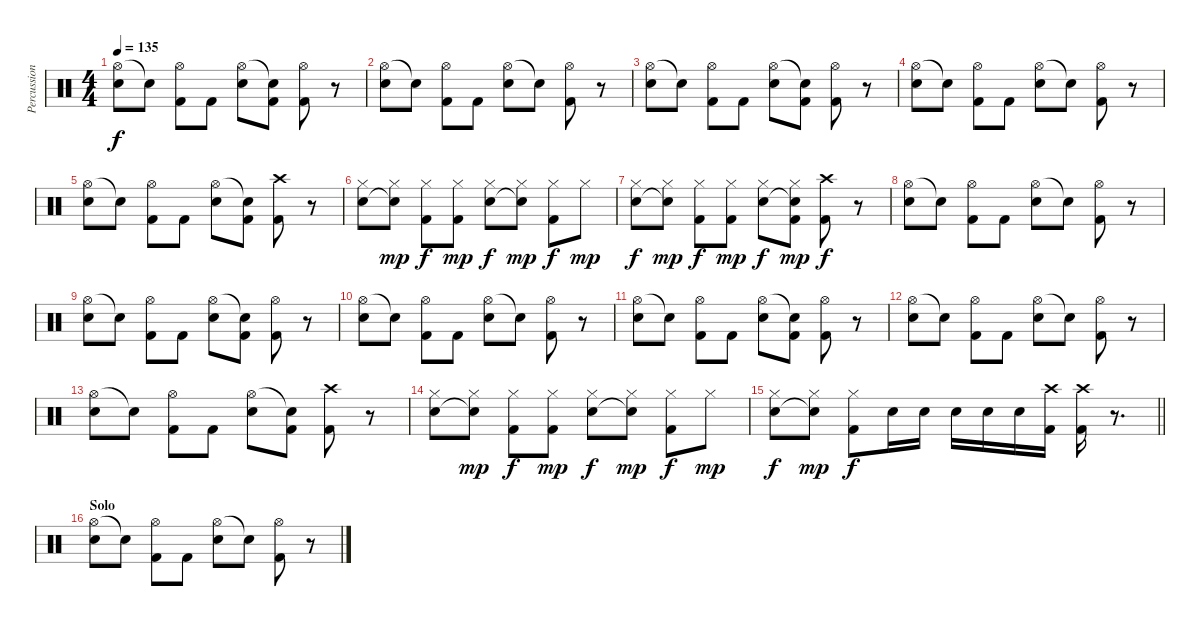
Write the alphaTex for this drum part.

\track ("Percussion" "Percussion") {instrument percussion}
\staff {score}
\articulation defaults
\ts (4 4)
\tempo 135
\clef neutral
\ks c
("Hi-Hat (open)" "Electric Snare (hit)").8{dy f} "Electric Snare (hit)"{t}.8 ("Hi-Hat (open)" "Kick (hit) 2").8 "Kick (hit) 2".8 ("Hi-Hat (open)" "Electric Snare (hit)").8 ("Electric Snare (hit)"{t} "Kick (hit) 2").8 ("Hi-Hat (open)" "Kick (hit) 2").8 r.8 |
("Hi-Hat (open)" "Electric Snare (hit)").8 "Electric Snare (hit)"{t}.8 ("Hi-Hat (open)" "Kick (hit) 2").8 "Kick (hit) 2".8 ("Hi-Hat (open)" "Electric Snare (hit)").8 "Electric Snare (hit)"{t}.8 ("Hi-Hat (open)" "Kick (hit) 2").8 r.8 |
("Hi-Hat (open)" "Electric Snare (hit)").8 "Electric Snare (hit)"{t}.8 ("Hi-Hat (open)" "Kick (hit) 2").8 "Kick (hit) 2".8 ("Hi-Hat (open)" "Electric Snare (hit)").8 ("Electric Snare (hit)"{t} "Kick (hit) 2").8 ("Hi-Hat (open)" "Kick (hit) 2").8 r.8 |
("Hi-Hat (open)" "Electric Snare (hit)").8 "Electric Snare (hit)"{t}.8 ("Hi-Hat (open)" "Kick (hit) 2").8 "Kick (hit) 2".8 ("Hi-Hat (open)" "Electric Snare (hit)").8 "Electric Snare (hit)"{t}.8 ("Hi-Hat (open)" "Kick (hit) 2").8 r.8 |
("Hi-Hat (open)" "Electric Snare (hit)").8 "Electric Snare (hit)"{t}.8 ("Hi-Hat (open)" "Kick (hit) 2").8 "Kick (hit) 2".8 ("Hi-Hat (open)" "Electric Snare (hit)").8 ("Electric Snare (hit)"{t} "Kick (hit) 2").8 ("Crash high (hit)" "Kick (hit) 2").8 r.8 |
("Hi-Hat (closed)" "Electric Snare (hit)").8 ("Hi-Hat (closed)" "Electric Snare (hit)"{t}).8{dy mp} ("Hi-Hat (closed)" "Kick (hit) 2").8{dy f} ("Hi-Hat (closed)" "Kick (hit) 2").8{dy mp} ("Hi-Hat (closed)" "Electric Snare (hit)").8{dy f} ("Hi-Hat (closed)" "Electric Snare (hit)"{t}).8{dy mp} ("Hi-Hat (closed)" "Kick (hit) 2").8{dy f} "Hi-Hat (closed)".8{dy mp} |
("Hi-Hat (closed)" "Electric Snare (hit)").8{dy f} ("Hi-Hat (closed)" "Electric Snare (hit)"{t}).8{dy mp} ("Hi-Hat (closed)" "Kick (hit) 2").8{dy f} ("Hi-Hat (closed)" "Kick (hit) 2").8{dy mp} ("Hi-Hat (closed)" "Electric Snare (hit)").8{dy f} ("Hi-Hat (closed)" "Electric Snare (hit)"{t} "Kick (hit) 2").8{dy mp} ("Crash high (hit)" "Kick (hit) 2").8{dy f} r.8 |
("Hi-Hat (open)" "Electric Snare (hit)").8 "Electric Snare (hit)"{t}.8 ("Hi-Hat (open)" "Kick (hit) 2").8 "Kick (hit) 2".8 ("Hi-Hat (open)" "Electric Snare (hit)").8 "Electric Snare (hit)"{t}.8 ("Hi-Hat (open)" "Kick (hit) 2").8 r.8 |
("Hi-Hat (open)" "Electric Snare (hit)").8 "Electric Snare (hit)"{t}.8 ("Hi-Hat (open)" "Kick (hit) 2").8 "Kick (hit) 2".8 ("Hi-Hat (open)" "Electric Snare (hit)").8 ("Electric Snare (hit)"{t} "Kick (hit) 2").8 ("Hi-Hat (open)" "Kick (hit) 2").8 r.8 |
("Hi-Hat (open)" "Electric Snare (hit)").8 "Electric Snare (hit)"{t}.8 ("Hi-Hat (open)" "Kick (hit) 2").8 "Kick (hit) 2".8 ("Hi-Hat (open)" "Electric Snare (hit)").8 "Electric Snare (hit)"{t}.8 ("Hi-Hat (open)" "Kick (hit) 2").8 r.8 |
("Hi-Hat (open)" "Electric Snare (hit)").8 "Electric Snare (hit)"{t}.8 ("Hi-Hat (open)" "Kick (hit) 2").8 "Kick (hit) 2".8 ("Hi-Hat (open)" "Electric Snare (hit)").8 ("Electric Snare (hit)"{t} "Kick (hit) 2").8 ("Hi-Hat (open)" "Kick (hit) 2").8 r.8 |
("Hi-Hat (open)" "Electric Snare (hit)").8 "Electric Snare (hit)"{t}.8 ("Hi-Hat (open)" "Kick (hit) 2").8 "Kick (hit) 2".8 ("Hi-Hat (open)" "Electric Snare (hit)").8 "Electric Snare (hit)"{t}.8 ("Hi-Hat (open)" "Kick (hit) 2").8 r.8 |
("Hi-Hat (open)" "Electric Snare (hit)").8 "Electric Snare (hit)"{t}.8 ("Hi-Hat (open)" "Kick (hit) 2").8 "Kick (hit) 2".8 ("Hi-Hat (open)" "Electric Snare (hit)").8 ("Electric Snare (hit)"{t} "Kick (hit) 2").8 ("Crash high (hit)" "Kick (hit) 2").8 r.8 |
("Hi-Hat (closed)" "Electric Snare (hit)").8 ("Hi-Hat (closed)" "Electric Snare (hit)"{t}).8{dy mp} ("Hi-Hat (closed)" "Kick (hit) 2").8{dy f} ("Hi-Hat (closed)" "Kick (hit) 2").8{dy mp} ("Hi-Hat (closed)" "Electric Snare (hit)").8{dy f} ("Hi-Hat (closed)" "Electric Snare (hit)"{t}).8{dy mp} ("Hi-Hat (closed)" "Kick (hit) 2").8{dy f} "Hi-Hat (closed)".8{dy mp} |
\barLineRight lightlight
("Hi-Hat (closed)" "Electric Snare (hit)").8{dy f} ("Hi-Hat (closed)" "Electric Snare (hit)"{t}).8{dy mp} ("Hi-Hat (closed)" "Kick (hit) 2").8{dy f} "Electric Snare (hit)".16 "Electric Snare (hit)".16 "Electric Snare (hit)".16 "Electric Snare (hit)".16 "Electric Snare (hit)".16 ("Crash high (hit)" "Kick (hit) 2").16 ("Crash high (hit)" "Kick (hit) 2").16 r.8{d} |
\section ("" "Solo")
("Hi-Hat (open)" "Electric Snare (hit)").8 "Electric Snare (hit)"{t}.8 ("Hi-Hat (open)" "Kick (hit) 2").8 "Kick (hit) 2".8 ("Hi-Hat (open)" "Electric Snare (hit)").8 "Electric Snare (hit)"{t}.8 ("Hi-Hat (open)" "Kick (hit) 2").8 r.8
